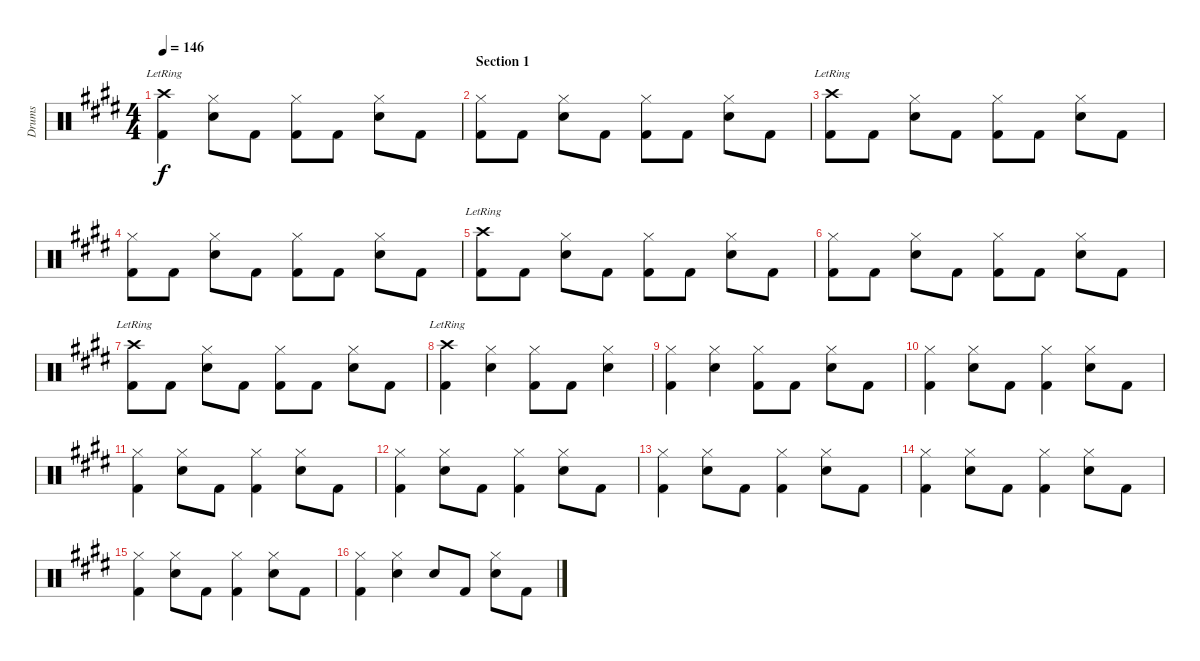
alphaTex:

\track ("Drums" "Drums") {instrument percussion}
\staff {score}
\articulation defaults
\ts (4 4)
\tempo 146
\clef neutral
\ks e
("Kick (hit) 2" "Crash high (hit)"{lr}).4{dy f} ("Snare (hit) 2" "Hi-Hat (closed)").8 "Kick (hit) 2".8 ("Kick (hit) 2" "Hi-Hat (closed)").8 "Kick (hit) 2".8 ("Snare (hit) 2" "Hi-Hat (closed)").8 "Kick (hit) 2".8 |
\section ("" "Section 1")
("Kick (hit) 2" "Hi-Hat (closed)").8 "Kick (hit) 2".8 ("Snare (hit) 2" "Hi-Hat (closed)").8 "Kick (hit) 2".8 ("Kick (hit) 2" "Hi-Hat (closed)").8 "Kick (hit) 2".8 ("Snare (hit) 2" "Hi-Hat (closed)").8 "Kick (hit) 2".8 |
("Kick (hit) 2" "Crash high (hit)"{lr}).8 "Kick (hit) 2".8 ("Snare (hit) 2" "Hi-Hat (closed)").8 "Kick (hit) 2".8 ("Kick (hit) 2" "Hi-Hat (closed)").8 "Kick (hit) 2".8 ("Snare (hit) 2" "Hi-Hat (closed)").8 "Kick (hit) 2".8 |
("Kick (hit) 2" "Hi-Hat (closed)").8 "Kick (hit) 2".8 ("Snare (hit) 2" "Hi-Hat (closed)").8 "Kick (hit) 2".8 ("Kick (hit) 2" "Hi-Hat (closed)").8 "Kick (hit) 2".8 ("Snare (hit) 2" "Hi-Hat (closed)").8 "Kick (hit) 2".8 |
("Kick (hit) 2" "Crash high (hit)"{lr}).8 "Kick (hit) 2".8 ("Snare (hit) 2" "Hi-Hat (closed)").8 "Kick (hit) 2".8 ("Kick (hit) 2" "Hi-Hat (closed)").8 "Kick (hit) 2".8 ("Snare (hit) 2" "Hi-Hat (closed)").8 "Kick (hit) 2".8 |
("Kick (hit) 2" "Hi-Hat (closed)").8 "Kick (hit) 2".8 ("Snare (hit) 2" "Hi-Hat (closed)").8 "Kick (hit) 2".8 ("Kick (hit) 2" "Hi-Hat (closed)").8 "Kick (hit) 2".8 ("Snare (hit) 2" "Hi-Hat (closed)").8 "Kick (hit) 2".8 |
("Kick (hit) 2" "Crash high (hit)"{lr}).8 "Kick (hit) 2".8 ("Snare (hit) 2" "Hi-Hat (closed)").8 "Kick (hit) 2".8 ("Kick (hit) 2" "Hi-Hat (closed)").8 "Kick (hit) 2".8 ("Snare (hit) 2" "Hi-Hat (closed)").8 "Kick (hit) 2".8 |
("Kick (hit) 2" "Crash high (hit)"{lr}).4 ("Snare (hit) 2" "Hi-Hat (closed)").4 ("Kick (hit) 2" "Hi-Hat (closed)").8 "Kick (hit) 2".8 ("Snare (hit) 2" "Hi-Hat (closed)").4 |
("Kick (hit) 2" "Hi-Hat (closed)").4 ("Snare (hit) 2" "Hi-Hat (closed)").4 ("Kick (hit) 2" "Hi-Hat (closed)").8 "Kick (hit) 2".8 ("Snare (hit) 2" "Hi-Hat (closed)").8 "Kick (hit) 2".8 |
("Kick (hit) 2" "Hi-Hat (closed)").4 ("Snare (hit) 2" "Hi-Hat (closed)").8 "Kick (hit) 2".8 ("Kick (hit) 2" "Hi-Hat (closed)").4 ("Snare (hit) 2" "Hi-Hat (closed)").8 "Kick (hit) 2".8 |
("Kick (hit) 2" "Hi-Hat (closed)").4 ("Snare (hit) 2" "Hi-Hat (closed)").8 "Kick (hit) 2".8 ("Kick (hit) 2" "Hi-Hat (closed)").4 ("Snare (hit) 2" "Hi-Hat (closed)").8 "Kick (hit) 2".8 |
("Kick (hit) 2" "Hi-Hat (closed)").4 ("Snare (hit) 2" "Hi-Hat (closed)").8 "Kick (hit) 2".8 ("Kick (hit) 2" "Hi-Hat (closed)").4 ("Snare (hit) 2" "Hi-Hat (closed)").8 "Kick (hit) 2".8 |
("Kick (hit) 2" "Hi-Hat (closed)").4 ("Snare (hit) 2" "Hi-Hat (closed)").8 "Kick (hit) 2".8 ("Kick (hit) 2" "Hi-Hat (closed)").4 ("Snare (hit) 2" "Hi-Hat (closed)").8 "Kick (hit) 2".8 |
("Kick (hit) 2" "Hi-Hat (closed)").4 ("Snare (hit) 2" "Hi-Hat (closed)").8 "Kick (hit) 2".8 ("Kick (hit) 2" "Hi-Hat (closed)").4 ("Snare (hit) 2" "Hi-Hat (closed)").8 "Kick (hit) 2".8 |
("Kick (hit) 2" "Hi-Hat (closed)").4 ("Snare (hit) 2" "Hi-Hat (closed)").8 "Kick (hit) 2".8 ("Kick (hit) 2" "Hi-Hat (closed)").4 ("Snare (hit) 2" "Hi-Hat (closed)").8 "Kick (hit) 2".8 |
("Kick (hit) 2" "Hi-Hat (closed)").4 ("Snare (hit) 2" "Hi-Hat (closed)").4 "Snare (hit) 2".8 "Kick (hit) 2".8 ("Snare (hit) 2" "Hi-Hat (closed)").8 "Kick (hit) 2".8
